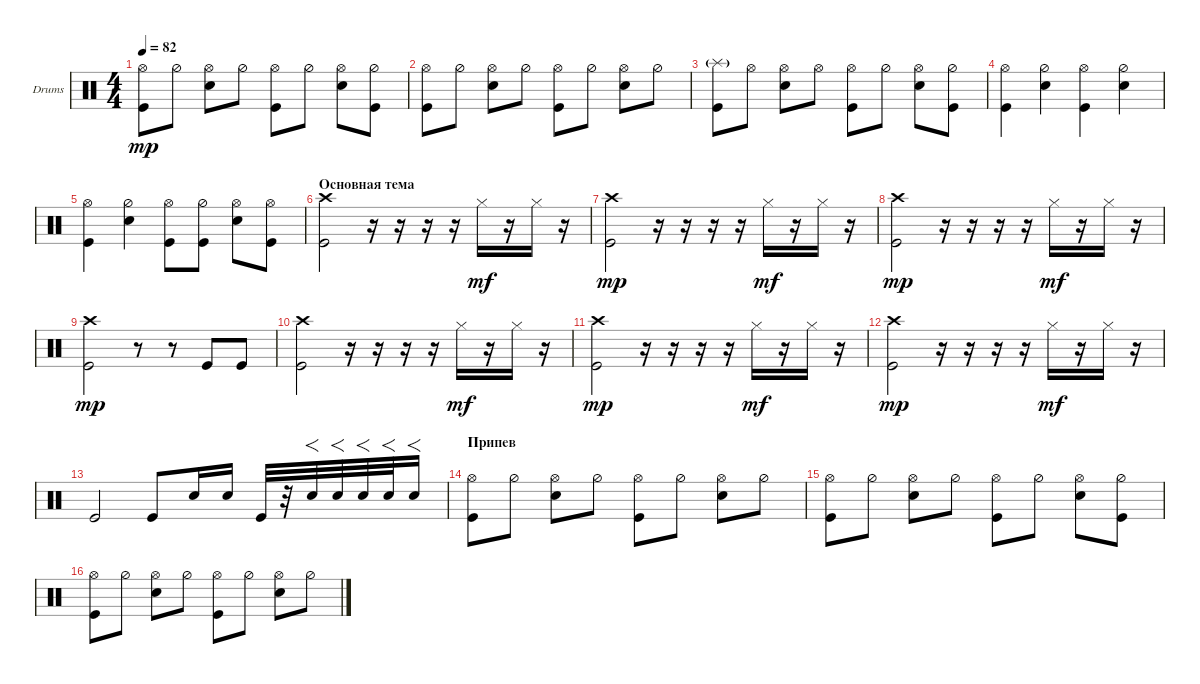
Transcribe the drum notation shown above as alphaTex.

\defaultSystemsLayout 4
\bracketExtendMode groupsimilarinstruments
\firstSystemTrackNameOrientation horizontal
\otherSystemsTrackNameOrientation horizontal
\track ("Drumkit" "Drums") {instrument percussion}
\staff {score}
\articulation defaults
\ts (4 4)
\tempo 82
\clef neutral
\ks c
("Hi-Hat (open)" "Kick (hit)").8{dy mp} "Hi-Hat (half)".8 ("Hi-Hat (open)" "Snare (hit) 2").8 "Hi-Hat (half)".8 ("Hi-Hat (open)" "Kick (hit)").8 "Hi-Hat (half)".8 ("Hi-Hat (open)" "Snare (hit) 2").8 ("Hi-Hat (half)" "Kick (hit)").8 |
("Hi-Hat (open)" "Kick (hit)").8 "Hi-Hat (half)".8 ("Hi-Hat (open)" "Snare (hit) 2").8 "Hi-Hat (half)".8 ("Hi-Hat (open)" "Kick (hit)").8 "Hi-Hat (half)".8 ("Hi-Hat (open)" "Snare (hit) 2").8 "Hi-Hat (half)".8 |
("Kick (hit)" "Splash (hit)"{g}).8 "Hi-Hat (open)".8 ("Hi-Hat (open)" "Snare (hit) 2").8 "Hi-Hat (open)".8 ("Hi-Hat (open)" "Kick (hit)").8 "Hi-Hat (half)".8 ("Hi-Hat (open)" "Snare (hit) 2").8 ("Hi-Hat (half)" "Kick (hit)").8 |
("Kick (hit)" "Hi-Hat (open)").4 ("Snare (hit) 2" "Hi-Hat (half)").4 ("Kick (hit)" "Hi-Hat (open)").4 ("Snare (hit) 2" "Hi-Hat (half)").4 |
("Kick (hit)" "Hi-Hat (open)").4 ("Snare (hit) 2" "Hi-Hat (half)").4 ("Kick (hit)" "Hi-Hat (open)").8 ("Kick (hit)" "Hi-Hat (half)").8 ("Snare (hit) 2" "Hi-Hat (open)").8 ("Hi-Hat (open)" "Kick (hit)").8 |
\section ("" "Основная тема")
("Kick (hit)" "Crash high (hit)").2 r.16 r.16 r.16 r.16 "Hi-Hat (closed)".16{dy mf} r.16 "Hi-Hat (closed)".16 r.16 |
("Kick (hit)" "Crash high (hit)").2{dy mp} r.16 r.16 r.16 r.16 "Hi-Hat (closed)".16{dy mf} r.16 "Hi-Hat (closed)".16 r.16 |
("Kick (hit)" "Crash high (hit)").2{dy mp} r.16 r.16 r.16 r.16 "Hi-Hat (closed)".16{dy mf} r.16 "Hi-Hat (closed)".16 r.16 |
("Kick (hit)" "Crash high (hit)").2{dy mp} r.8 r.8 "Kick (hit)".8 "Kick (hit)".8 |
("Kick (hit)" "Crash high (hit)").2 r.16 r.16 r.16 r.16 "Hi-Hat (closed)".16{dy mf} r.16 "Hi-Hat (closed)".16 r.16 |
("Kick (hit)" "Crash high (hit)").2{dy mp} r.16 r.16 r.16 r.16 "Hi-Hat (closed)".16{dy mf} r.16 "Hi-Hat (closed)".16 r.16 |
("Kick (hit)" "Crash high (hit)").2{dy mp} r.16 r.16 r.16 r.16 "Hi-Hat (closed)".16{dy mf} r.16 "Hi-Hat (closed)".16 r.16 |
"Kick (hit)".2 "Kick (hit)".8 "Snare (hit) 2".16 "Snare (hit) 2".16 "Kick (hit)".32 r.32 "Snare (hit) 2".32{f} "Snare (hit) 2".32{f} "Snare (hit) 2".32{f} "Snare (hit) 2".32{f} "Snare (hit) 2".16{f} |
\section ("" "Припев")
("Kick (hit)" "Hi-Hat (open)").8 "Hi-Hat (half)".8 ("Snare (hit) 2" "Hi-Hat (open)").8 "Hi-Hat (half)".8 ("Kick (hit)" "Hi-Hat (open)").8 "Hi-Hat (half)".8 ("Snare (hit) 2" "Hi-Hat (open)").8 "Hi-Hat (half)".8 |
("Hi-Hat (open)" "Kick (hit)").8 "Hi-Hat (half)".8 ("Hi-Hat (open)" "Snare (hit) 2").8 "Hi-Hat (half)".8 ("Hi-Hat (open)" "Kick (hit)").8 "Hi-Hat (half)".8 ("Hi-Hat (open)" "Snare (hit) 2").8 ("Hi-Hat (half)" "Kick (hit)").8 |
("Hi-Hat (open)" "Kick (hit)").8 "Hi-Hat (half)".8 ("Hi-Hat (open)" "Snare (hit) 2").8 "Hi-Hat (half)".8 ("Hi-Hat (open)" "Kick (hit)").8 "Hi-Hat (half)".8 ("Hi-Hat (open)" "Snare (hit) 2").8 "Hi-Hat (half)".8
